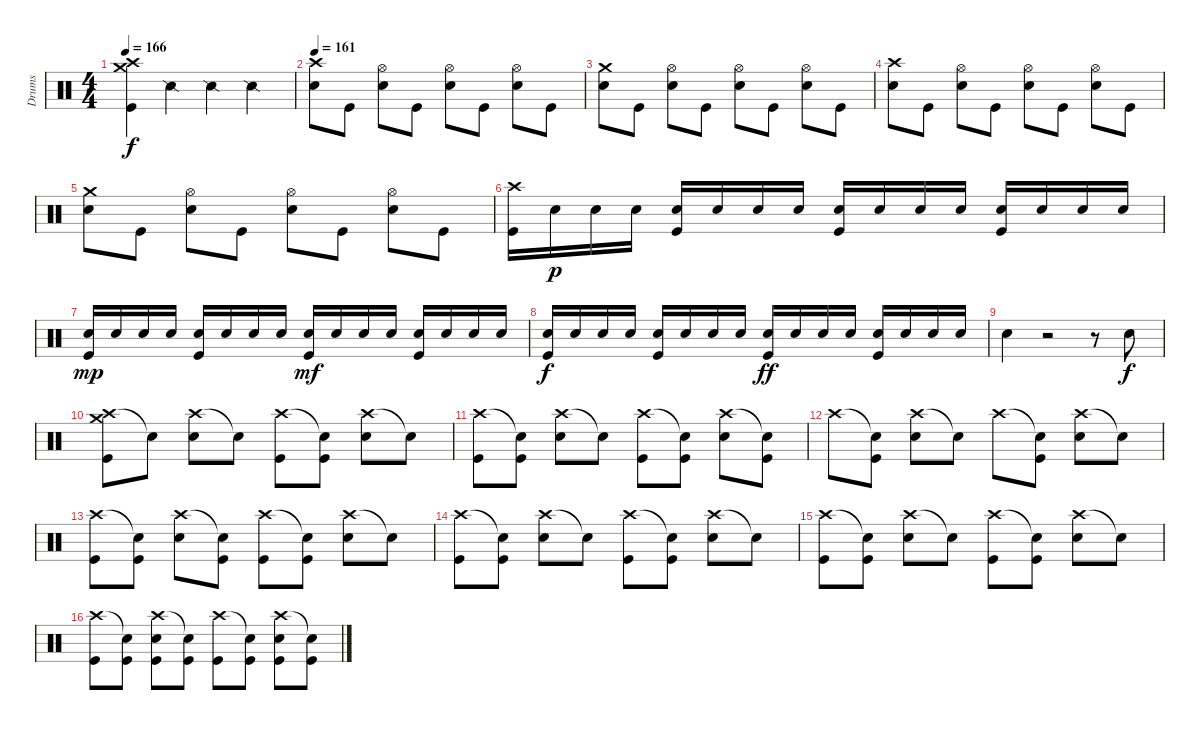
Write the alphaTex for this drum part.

\track ("Drums" "Drums") {instrument percussion}
\staff {score}
\articulation defaults
\ts (4 4)
\tempo 166
\clef neutral
\ks c
("Crash high (hit)" "Crash medium (hit)" "Kick (hit)").4{dy f} "Snare (side stick) 2".4 "Snare (side stick) 2".4 "Snare (side stick) 2".4 |
\tempo 161
("Snare (hit) 2" "Crash high (hit)").8 "Kick (hit)".8 ("Hi-Hat (open)" "Snare (hit) 2").8 "Kick (hit)".8 ("Hi-Hat (open)" "Snare (hit) 2").8 "Kick (hit)".8 ("Hi-Hat (open)" "Snare (hit) 2").8 "Kick (hit)".8 |
("Crash medium (hit)" "Snare (hit) 2").8 "Kick (hit)".8 ("Hi-Hat (open)" "Snare (hit) 2").8 "Kick (hit)".8 ("Hi-Hat (open)" "Snare (hit) 2").8 "Kick (hit)".8 ("Hi-Hat (open)" "Snare (hit) 2").8 "Kick (hit)".8 |
("Snare (hit) 2" "Crash high (hit)").8 "Kick (hit)".8 ("Hi-Hat (open)" "Snare (hit) 2").8 "Kick (hit)".8 ("Hi-Hat (open)" "Snare (hit) 2").8 "Kick (hit)".8 ("Hi-Hat (open)" "Snare (hit) 2").8 "Kick (hit)".8 |
("Crash medium (hit)" "Snare (hit) 2").8 "Kick (hit)".8 ("Hi-Hat (open)" "Snare (hit) 2").8 "Kick (hit)".8 ("Hi-Hat (open)" "Snare (hit) 2").8 "Kick (hit)".8 ("Hi-Hat (open)" "Snare (hit) 2").8 "Kick (hit)".8 |
("Crash high (hit)" "Kick (hit)").16 "Snare (hit) 2".16{dy p} "Snare (hit) 2".16 "Snare (hit) 2".16 ("Snare (hit) 2" "Kick (hit)").16 "Snare (hit) 2".16 "Snare (hit) 2".16 "Snare (hit) 2".16 ("Snare (hit) 2" "Kick (hit)").16 "Snare (hit) 2".16 "Snare (hit) 2".16 "Snare (hit) 2".16 ("Snare (hit) 2" "Kick (hit)").16 "Snare (hit) 2".16 "Snare (hit) 2".16 "Snare (hit) 2".16 |
("Snare (hit) 2" "Kick (hit)").16{dy mp} "Snare (hit) 2".16 "Snare (hit) 2".16 "Snare (hit) 2".16 ("Snare (hit) 2" "Kick (hit)").16 "Snare (hit) 2".16 "Snare (hit) 2".16 "Snare (hit) 2".16 ("Snare (hit) 2" "Kick (hit)").16{dy mf} "Snare (hit) 2".16 "Snare (hit) 2".16 "Snare (hit) 2".16 ("Snare (hit) 2" "Kick (hit)").16 "Snare (hit) 2".16 "Snare (hit) 2".16 "Snare (hit) 2".16 |
("Snare (hit) 2" "Kick (hit)").16{dy f} "Snare (hit) 2".16 "Snare (hit) 2".16 "Snare (hit) 2".16 ("Snare (hit) 2" "Kick (hit)").16 "Snare (hit) 2".16 "Snare (hit) 2".16 "Snare (hit) 2".16 ("Snare (hit) 2" "Kick (hit)").16{dy ff} "Snare (hit) 2".16 "Snare (hit) 2".16 "Snare (hit) 2".16 ("Snare (hit) 2" "Kick (hit)").16 "Snare (hit) 2".16 "Snare (hit) 2".16 "Snare (hit) 2".16 |
"Snare (hit) 2".4 r.2 r.8 "Snare (hit) 2".8{dy f} |
("Crash high (hit)" "Crash medium (hit)" "Kick (hit)").8 "Snare (hit)"{t}.8 ("Crash high (hit)" "Snare (hit) 2").8 "Snare (hit)"{t}.8 ("Crash high (hit)" "Kick (hit)").8 ("Snare (hit)"{t} "Kick (hit)").8 ("Crash high (hit)" "Snare (hit) 2").8 "Snare (hit)"{t}.8 |
("Crash high (hit)" "Kick (hit)").8 ("Snare (hit)"{t} "Kick (hit)").8 ("Crash high (hit)" "Snare (hit) 2").8 "Snare (hit)"{t}.8 ("Crash high (hit)" "Kick (hit)").8 ("Snare (hit)"{t} "Kick (hit)").8 ("Crash high (hit)" "Snare (hit) 2").8 ("Snare (hit)"{t} "Kick (hit)").8 |
"Crash high (hit)".8 ("Snare (hit)"{t} "Kick (hit)").8 ("Crash high (hit)" "Snare (hit) 2").8 "Snare (hit)"{t}.8 "Crash high (hit)".8 ("Snare (hit)"{t} "Kick (hit)").8 ("Crash high (hit)" "Snare (hit) 2").8 "Snare (hit)"{t}.8 |
("Crash high (hit)" "Kick (hit)").8 ("Snare (hit)"{t} "Kick (hit)").8 ("Crash high (hit)" "Snare (hit) 2").8 ("Snare (hit)"{t} "Kick (hit)").8 ("Crash high (hit)" "Kick (hit)").8 ("Snare (hit)"{t} "Kick (hit)").8 ("Crash high (hit)" "Snare (hit) 2").8 "Snare (hit)"{t}.8 |
("Crash high (hit)" "Kick (hit)").8 ("Snare (hit)"{t} "Kick (hit)").8 ("Crash high (hit)" "Snare (hit) 2").8 "Snare (hit)"{t}.8 ("Crash high (hit)" "Kick (hit)").8 ("Snare (hit)"{t} "Kick (hit)").8 ("Crash high (hit)" "Snare (hit) 2").8 "Snare (hit)"{t}.8 |
("Crash high (hit)" "Kick (hit)").8 ("Snare (hit)"{t} "Kick (hit)").8 ("Crash high (hit)" "Snare (hit) 2").8 "Snare (hit)"{t}.8 ("Crash high (hit)" "Kick (hit)").8 ("Snare (hit)"{t} "Kick (hit)").8 ("Crash high (hit)" "Snare (hit) 2").8 "Snare (hit)"{t}.8 |
("Crash high (hit)" "Kick (hit)").8 ("Snare (hit)"{t} "Kick (hit)").8 ("Crash high (hit)" "Snare (hit) 2" "Kick (hit)").8 ("Snare (hit)"{t} "Kick (hit)").8 ("Crash high (hit)" "Kick (hit)").8 ("Snare (hit)"{t} "Kick (hit)").8 ("Crash high (hit)" "Snare (hit) 2" "Kick (hit)").8 ("Snare (hit)"{t} "Kick (hit)").8
